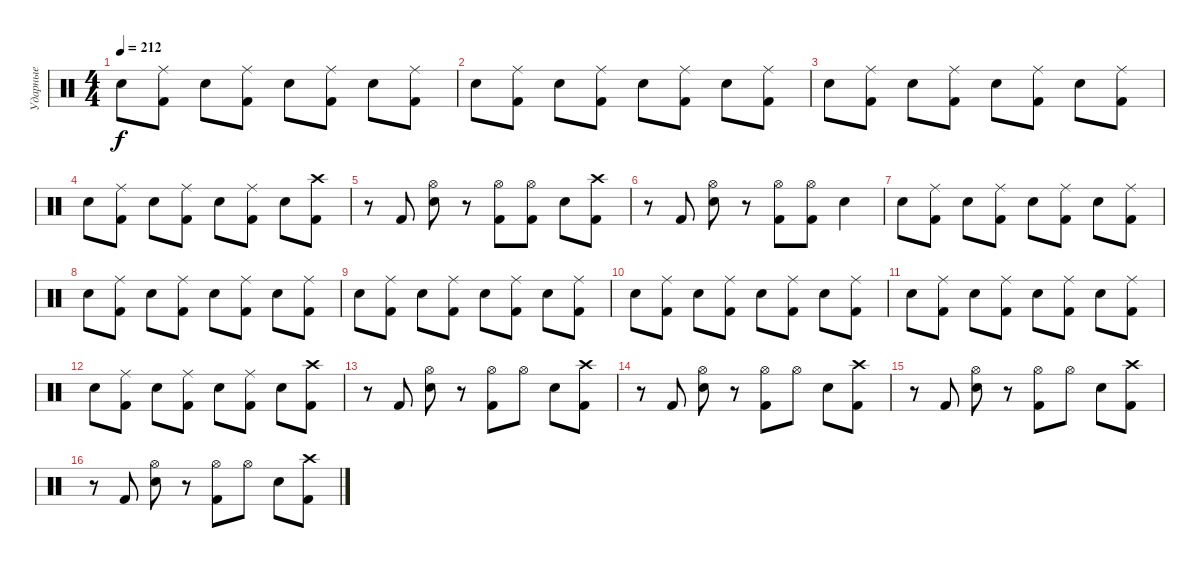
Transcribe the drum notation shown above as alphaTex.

\track ("Ударные" "Ударные") {instrument percussion}
\staff {score}
\articulation defaults
\ts (4 4)
\tempo 212
\clef neutral
\ks c "Electric Snare (hit)".8{dy f}
("Ride (middle)" "Kick (hit) 2").8 "Electric Snare (hit)".8 ("Ride (middle)" "Kick (hit) 2").8 "Electric Snare (hit)".8 ("Ride (middle)" "Kick (hit) 2").8 "Electric Snare (hit)".8 ("Ride (middle)" "Kick (hit) 2").8 |
"Electric Snare (hit)".8 ("Ride (middle)" "Kick (hit) 2").8 "Electric Snare (hit)".8 ("Ride (middle)" "Kick (hit) 2").8 "Electric Snare (hit)".8 ("Ride (middle)" "Kick (hit) 2").8 "Electric Snare (hit)".8 ("Ride (middle)" "Kick (hit) 2").8 |
"Electric Snare (hit)".8 ("Ride (middle)" "Kick (hit) 2").8 "Electric Snare (hit)".8 ("Ride (middle)" "Kick (hit) 2").8 "Electric Snare (hit)".8 ("Ride (middle)" "Kick (hit) 2").8 "Electric Snare (hit)".8 ("Ride (middle)" "Kick (hit) 2").8 |
"Electric Snare (hit)".8 ("Ride (middle)" "Kick (hit) 2").8 "Electric Snare (hit)".8 ("Ride (middle)" "Kick (hit) 2").8 "Electric Snare (hit)".8 ("Ride (middle)" "Kick (hit) 2").8 "Electric Snare (hit)".8 ("Crash high (hit)" "Kick (hit) 2").8 |
r.8 "Kick (hit) 2".8 ("Hi-Hat (open)" "Electric Snare (hit)").8 r.8 ("Hi-Hat (open)" "Kick (hit) 2").8 ("Hi-Hat (open)" "Kick (hit) 2").8 "Electric Snare (hit)".8 ("Crash high (hit)" "Kick (hit) 2").8 |
r.8 "Kick (hit) 2".8 ("Hi-Hat (open)" "Electric Snare (hit)").8 r.8 ("Hi-Hat (open)" "Kick (hit) 2").8 ("Hi-Hat (open)" "Kick (hit) 2").8 "Electric Snare (hit)".4 |
"Electric Snare (hit)".8 ("Ride (middle)" "Kick (hit) 2").8 "Electric Snare (hit)".8 ("Ride (middle)" "Kick (hit) 2").8 "Electric Snare (hit)".8 ("Ride (middle)" "Kick (hit) 2").8 "Electric Snare (hit)".8 ("Ride (middle)" "Kick (hit) 2").8 |
"Electric Snare (hit)".8 ("Ride (middle)" "Kick (hit) 2").8 "Electric Snare (hit)".8 ("Ride (middle)" "Kick (hit) 2").8 "Electric Snare (hit)".8 ("Ride (middle)" "Kick (hit) 2").8 "Electric Snare (hit)".8 ("Ride (middle)" "Kick (hit) 2").8 |
"Electric Snare (hit)".8 ("Ride (middle)" "Kick (hit) 2").8 "Electric Snare (hit)".8 ("Ride (middle)" "Kick (hit) 2").8 "Electric Snare (hit)".8 ("Ride (middle)" "Kick (hit) 2").8 "Electric Snare (hit)".8 ("Ride (middle)" "Kick (hit) 2").8 |
"Electric Snare (hit)".8 ("Ride (middle)" "Kick (hit) 2").8 "Electric Snare (hit)".8 ("Ride (middle)" "Kick (hit) 2").8 "Electric Snare (hit)".8 ("Ride (middle)" "Kick (hit) 2").8 "Electric Snare (hit)".8 ("Ride (middle)" "Kick (hit) 2").8 |
"Electric Snare (hit)".8 ("Ride (middle)" "Kick (hit) 2").8 "Electric Snare (hit)".8 ("Ride (middle)" "Kick (hit) 2").8 "Electric Snare (hit)".8 ("Ride (middle)" "Kick (hit) 2").8 "Electric Snare (hit)".8 ("Ride (middle)" "Kick (hit) 2").8 |
"Electric Snare (hit)".8 ("Ride (middle)" "Kick (hit) 2").8 "Electric Snare (hit)".8 ("Ride (middle)" "Kick (hit) 2").8 "Electric Snare (hit)".8 ("Ride (middle)" "Kick (hit) 2").8 "Electric Snare (hit)".8 ("Crash high (hit)" "Kick (hit) 2").8 |
r.8 "Kick (hit) 2".8 ("Hi-Hat (open)" "Electric Snare (hit)").8 r.8 ("Hi-Hat (open)" "Kick (hit) 2").8 "Hi-Hat (open)".8 "Electric Snare (hit)".8 ("Crash high (hit)" "Kick (hit) 2").8 |
r.8 "Kick (hit) 2".8 ("Hi-Hat (open)" "Electric Snare (hit)").8 r.8 ("Hi-Hat (open)" "Kick (hit) 2").8 "Hi-Hat (open)".8 "Electric Snare (hit)".8 ("Crash high (hit)" "Kick (hit) 2").8 |
r.8 "Kick (hit) 2".8 ("Hi-Hat (open)" "Electric Snare (hit)").8 r.8 ("Hi-Hat (open)" "Kick (hit) 2").8 "Hi-Hat (open)".8 "Electric Snare (hit)".8 ("Crash high (hit)" "Kick (hit) 2").8 |
r.8 "Kick (hit) 2".8 ("Hi-Hat (open)" "Electric Snare (hit)").8 r.8 ("Hi-Hat (open)" "Kick (hit) 2").8 "Hi-Hat (open)".8 "Electric Snare (hit)".8 ("Crash high (hit)" "Kick (hit) 2").8
